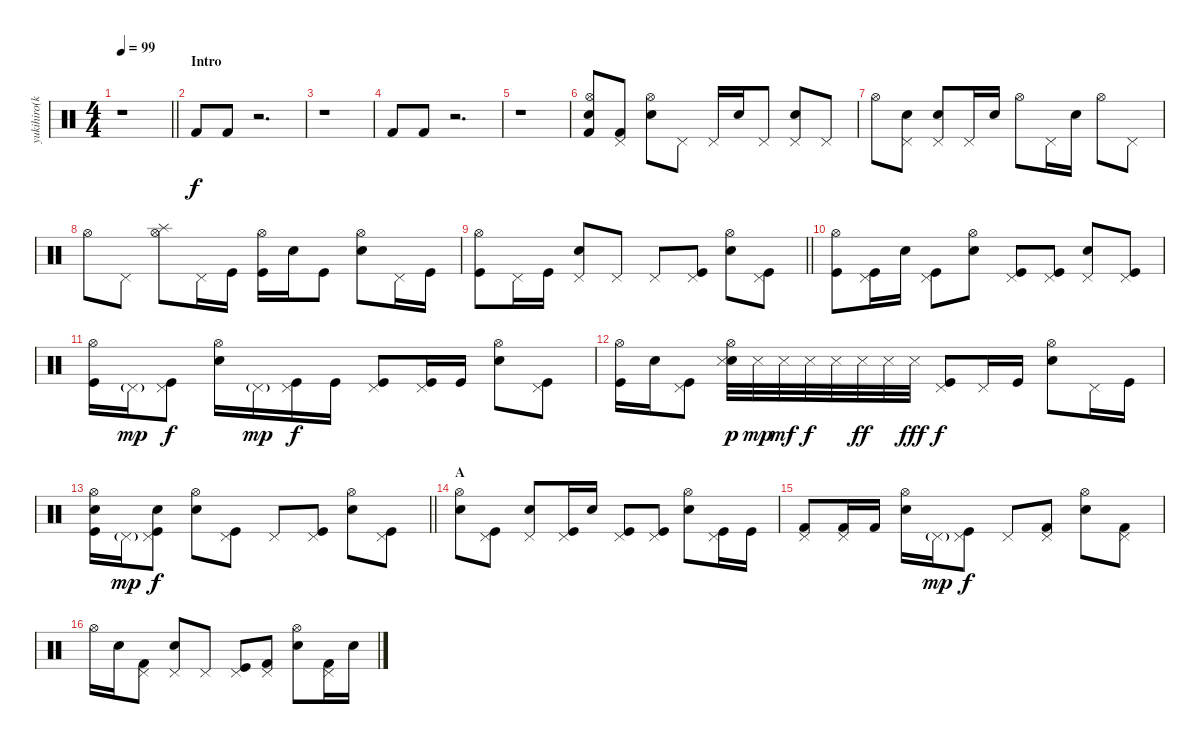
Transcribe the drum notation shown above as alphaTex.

\track ("yukihiro(kami)" "yukihiro(k") {instrument percussion}
\staff {score}
\articulation defaults
\ts (4 4)
\tempo 99
\clef neutral
\barLineRight lightlight
\ks c
r.1{dy f} |
\section ("" "Intro")
"Kick (hit) 2".8 "Kick (hit) 2".8 r.2{d} |
r.1 |
"Kick (hit) 2".8 "Kick (hit) 2".8 r.2{d} |
r.1 |
("Hi-Hat (open)" "Snare (hit) 2" "Kick (hit) 2").8 ("Pedal Hi-Hat (hit)" "Kick (hit) 2").8 ("Hi-Hat (open)" "Snare (hit) 2").8 "Pedal Hi-Hat (hit)".8 "Pedal Hi-Hat (hit)".16 "Snare (hit) 2".16 "Pedal Hi-Hat (hit)".8 ("Pedal Hi-Hat (hit)" "Snare (hit) 2").8 "Pedal Hi-Hat (hit)".8 |
"Hi-Hat (open)".8 ("Pedal Hi-Hat (hit)" "Snare (hit) 2").8 ("Pedal Hi-Hat (hit)" "Snare (hit) 2").8 "Pedal Hi-Hat (hit)".16 "Snare (hit) 2".16 "Hi-Hat (open)".8 "Pedal Hi-Hat (hit)".16 "Snare (hit) 2".16 "Hi-Hat (open)".8 "Pedal Hi-Hat (hit)".8 |
"Hi-Hat (open)".8 "Pedal Hi-Hat (hit)".8 ("Hi-Hat (open)" "Splash (hit)").8 "Pedal Hi-Hat (hit)".16 "Kick (hit)".16 ("Hi-Hat (open)" "Kick (hit)").16 "Snare (hit) 2".16 "Kick (hit)".8 ("Hi-Hat (open)" "Snare (hit) 2").8 "Pedal Hi-Hat (hit)".16 "Kick (hit)".16 |
\barLineRight lightlight
("Hi-Hat (open)" "Kick (hit)").8 "Pedal Hi-Hat (hit)".16 "Kick (hit)".16 ("Pedal Hi-Hat (hit)" "Snare (hit) 2").8 "Pedal Hi-Hat (hit)".8 "Pedal Hi-Hat (hit)".8 ("Pedal Hi-Hat (hit)" "Kick (hit)").8 ("Hi-Hat (open)" "Snare (hit) 2").8 ("Pedal Hi-Hat (hit)" "Kick (hit)").8 |
("Hi-Hat (open)" "Kick (hit)").8 ("Pedal Hi-Hat (hit)" "Kick (hit)").16 "Snare (hit) 2".16 ("Pedal Hi-Hat (hit)" "Kick (hit)").8 ("Hi-Hat (open)" "Snare (hit) 2").8 ("Pedal Hi-Hat (hit)" "Kick (hit)").8 ("Pedal Hi-Hat (hit)" "Kick (hit)").8 ("Pedal Hi-Hat (hit)" "Electric Snare (hit)").8 ("Pedal Hi-Hat (hit)" "Kick (hit)").8 |
("Hi-Hat (open)" "Kick (hit)").16 "Pedal Hi-Hat (hit)"{g}.16{dy mp} ("Pedal Hi-Hat (hit)" "Kick (hit)").8{dy f} ("Hi-Hat (open)" "Snare (hit) 2").16 "Pedal Hi-Hat (hit)"{g}.16{dy mp} ("Pedal Hi-Hat (hit)" "Kick (hit)").16{dy f} "Kick (hit)".16 ("Pedal Hi-Hat (hit)" "Kick (hit)").8 ("Pedal Hi-Hat (hit)" "Kick (hit)").16 "Kick (hit)".16 ("Hi-Hat (open)" "Snare (hit) 2").8 ("Pedal Hi-Hat (hit)" "Kick (hit)").8 |
("Hi-Hat (open)" "Kick (hit)").16 "Snare (hit) 2".16 ("Pedal Hi-Hat (hit)" "Kick (hit)").8 ("Hi-Hat (open)" "Snare (hit) 2" "Snare (side stick) 3").32{dy p} "Snare (side stick) 3".32{dy mp} "Snare (side stick) 3".32{dy mf} "Snare (side stick) 3".32{dy f} "Snare (side stick) 3".32 "Snare (side stick) 3".32{dy ff} "Snare (side stick) 3".32 "Snare (side stick) 3".32{dy fff} ("Pedal Hi-Hat (hit)" "Kick (hit)").8{dy f} "Pedal Hi-Hat (hit)".16 "Kick (hit)".16 ("Hi-Hat (open)" "Snare (hit) 2").8 "Pedal Hi-Hat (hit)".16 "Kick (hit)".16 |
\barLineRight lightlight
("Hi-Hat (open)" "Snare (hit) 2" "Kick (hit)").16 "Pedal Hi-Hat (hit)"{g}.16{dy mp} ("Pedal Hi-Hat (hit)" "Snare (hit) 2" "Kick (hit)").8{dy f} ("Hi-Hat (open)" "Snare (hit) 2").8 ("Pedal Hi-Hat (hit)" "Kick (hit)").8 "Pedal Hi-Hat (hit)".8 ("Pedal Hi-Hat (hit)" "Kick (hit)").8 ("Hi-Hat (open)" "Snare (hit) 2").8 ("Pedal Hi-Hat (hit)" "Kick (hit)").8 |
\section ("" "A")
("Hi-Hat (open)" "Snare (hit) 2").8 ("Pedal Hi-Hat (hit)" "Kick (hit)").8 ("Pedal Hi-Hat (hit)" "Snare (hit) 2").8 ("Pedal Hi-Hat (hit)" "Kick (hit)").16 "Snare (hit) 2".16 ("Pedal Hi-Hat (hit)" "Kick (hit)").8 ("Pedal Hi-Hat (hit)" "Kick (hit)").8 ("Hi-Hat (open)" "Snare (hit) 2").8 ("Pedal Hi-Hat (hit)" "Kick (hit)").16 "Kick (hit)".16 |
("Pedal Hi-Hat (hit)" "Kick (hit) 2").8 ("Pedal Hi-Hat (hit)" "Kick (hit) 2").16 "Kick (hit) 2".16 ("Hi-Hat (open)" "Electric Snare (hit)").16 "Pedal Hi-Hat (hit)"{g}.16{dy mp} ("Pedal Hi-Hat (hit)" "Kick (hit)").8{dy f} "Pedal Hi-Hat (hit)".8 ("Pedal Hi-Hat (hit)" "Kick (hit) 2").8 ("Hi-Hat (open)" "Electric Snare (hit)").8 ("Pedal Hi-Hat (hit)" "Kick (hit) 2").8 |
"Hi-Hat (open)".16 "Snare (hit) 2".16 ("Pedal Hi-Hat (hit)" "Kick (hit) 2").8 ("Pedal Hi-Hat (hit)" "Snare (hit) 2").8 "Pedal Hi-Hat (hit)".8 ("Pedal Hi-Hat (hit)" "Kick (hit)").8 ("Pedal Hi-Hat (hit)" "Kick (hit) 2").8 ("Hi-Hat (open)" "Snare (hit) 2").8 ("Pedal Hi-Hat (hit)" "Kick (hit) 2").16 "Electric Snare (hit)".16
